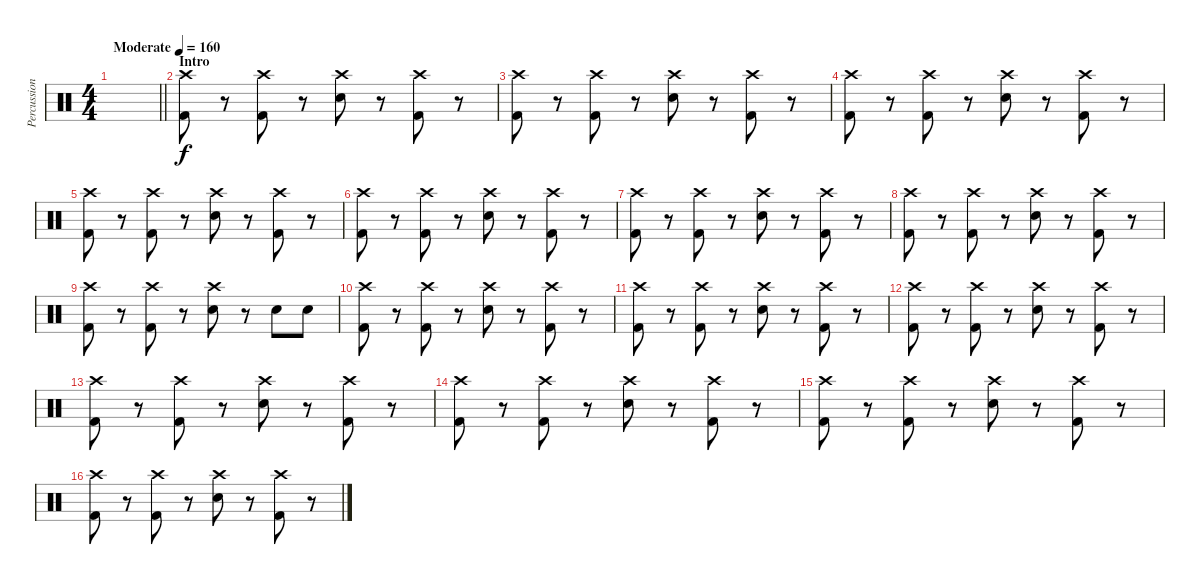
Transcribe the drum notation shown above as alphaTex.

\track ("Percussion" "Percussion") {instrument percussion}
\staff {score}
\articulation defaults
\ts (4 4)
\tempo (160 "Moderate")
\clef neutral
\barLineRight lightlight
\ks c
|
\section ("" "Intro")
("Crash high (hit)" "Kick (hit) 2").8 r.8 ("Crash high (hit)" "Kick (hit) 2").8 r.8 ("Crash high (hit)" "Electric Snare (hit)").8 r.8 ("Crash high (hit)" "Kick (hit) 2").8 r.8 |
("Crash high (hit)" "Kick (hit) 2").8 r.8 ("Crash high (hit)" "Kick (hit) 2").8 r.8 ("Crash high (hit)" "Electric Snare (hit)").8 r.8 ("Crash high (hit)" "Kick (hit) 2").8 r.8 |
("Crash high (hit)" "Kick (hit) 2").8 r.8 ("Crash high (hit)" "Kick (hit) 2").8 r.8 ("Crash high (hit)" "Electric Snare (hit)").8 r.8 ("Crash high (hit)" "Kick (hit) 2").8 r.8 |
("Crash high (hit)" "Kick (hit) 2").8 r.8 ("Crash high (hit)" "Kick (hit) 2").8 r.8 ("Crash high (hit)" "Electric Snare (hit)").8 r.8 ("Crash high (hit)" "Kick (hit) 2").8 r.8 |
("Crash high (hit)" "Kick (hit) 2").8 r.8 ("Crash high (hit)" "Kick (hit) 2").8 r.8 ("Crash high (hit)" "Electric Snare (hit)").8 r.8 ("Crash high (hit)" "Kick (hit) 2").8 r.8 |
("Crash high (hit)" "Kick (hit) 2").8 r.8 ("Crash high (hit)" "Kick (hit) 2").8 r.8 ("Crash high (hit)" "Electric Snare (hit)").8 r.8 ("Crash high (hit)" "Kick (hit) 2").8 r.8 |
("Crash high (hit)" "Kick (hit) 2").8 r.8 ("Crash high (hit)" "Kick (hit) 2").8 r.8 ("Crash high (hit)" "Electric Snare (hit)").8 r.8 ("Crash high (hit)" "Kick (hit) 2").8 r.8 |
("Crash high (hit)" "Kick (hit) 2").8 r.8 ("Crash high (hit)" "Kick (hit) 2").8 r.8 ("Crash high (hit)" "Electric Snare (hit)").8 r.8 "Electric Snare (hit)".8 "Electric Snare (hit)".8 |
("Crash high (hit)" "Kick (hit) 2").8 r.8 ("Crash high (hit)" "Kick (hit) 2").8 r.8 ("Crash high (hit)" "Electric Snare (hit)").8 r.8 ("Crash high (hit)" "Kick (hit) 2").8 r.8 |
("Crash high (hit)" "Kick (hit) 2").8 r.8 ("Crash high (hit)" "Kick (hit) 2").8 r.8 ("Crash high (hit)" "Electric Snare (hit)").8 r.8 ("Crash high (hit)" "Kick (hit) 2").8 r.8 |
("Crash high (hit)" "Kick (hit) 2").8 r.8 ("Crash high (hit)" "Kick (hit) 2").8 r.8 ("Crash high (hit)" "Electric Snare (hit)").8 r.8 ("Crash high (hit)" "Kick (hit) 2").8 r.8 |
("Crash high (hit)" "Kick (hit) 2").8 r.8 ("Crash high (hit)" "Kick (hit) 2").8 r.8 ("Crash high (hit)" "Electric Snare (hit)").8 r.8 ("Crash high (hit)" "Kick (hit) 2").8 r.8 |
("Crash high (hit)" "Kick (hit) 2").8 r.8 ("Crash high (hit)" "Kick (hit) 2").8 r.8 ("Crash high (hit)" "Electric Snare (hit)").8 r.8 ("Crash high (hit)" "Kick (hit) 2").8 r.8 |
("Crash high (hit)" "Kick (hit) 2").8 r.8 ("Crash high (hit)" "Kick (hit) 2").8 r.8 ("Crash high (hit)" "Electric Snare (hit)").8 r.8 ("Crash high (hit)" "Kick (hit) 2").8 r.8 |
("Crash high (hit)" "Kick (hit) 2").8 r.8 ("Crash high (hit)" "Kick (hit) 2").8 r.8 ("Crash high (hit)" "Electric Snare (hit)").8 r.8 ("Crash high (hit)" "Kick (hit) 2").8 r.8
